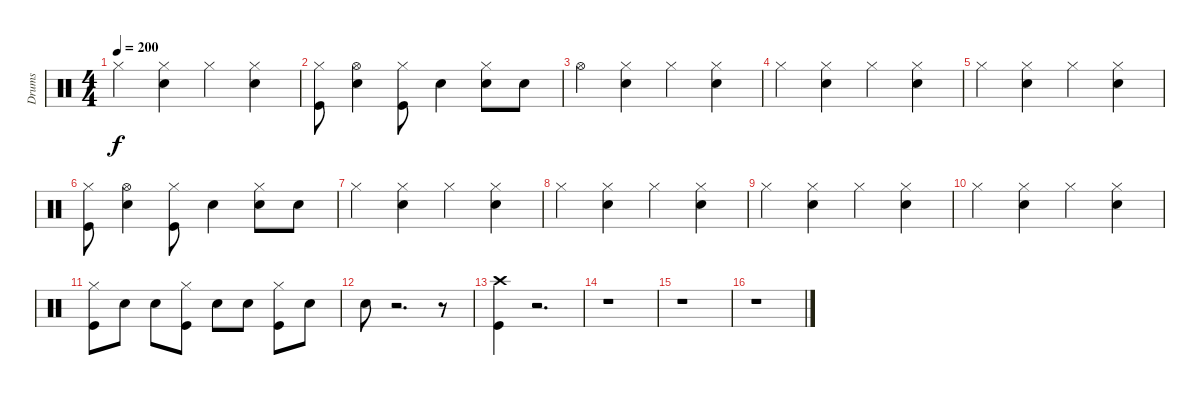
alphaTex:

\track ("Drums" "Drums") {instrument percussion}
\staff {score}
\articulation defaults
\ts (4 4)
\tempo 200
\clef neutral
\ks c "Hi-Hat (closed)".4{dy f}
("Snare (hit) 2" "Hi-Hat (closed)").4 "Hi-Hat (closed)".4 ("Snare (hit) 2" "Hi-Hat (closed)").4 |
("Kick (hit)" "Hi-Hat (closed)").8 ("Hi-Hat (open)" "Electric Snare (hit)").4 ("Kick (hit)" "Hi-Hat (closed)").8 "Electric Snare (hit)".4 ("Electric Snare (hit)" "Hi-Hat (closed)").8 "Electric Snare (hit)".8 |
"Hi-Hat (open)".4 ("Snare (hit) 2" "Hi-Hat (closed)").4 "Hi-Hat (closed)".4 ("Snare (hit) 2" "Hi-Hat (closed)").4 |
"Hi-Hat (closed)".4 ("Snare (hit) 2" "Hi-Hat (closed)").4 "Hi-Hat (closed)".4 ("Snare (hit) 2" "Hi-Hat (closed)").4 |
"Hi-Hat (closed)".4 ("Snare (hit) 2" "Hi-Hat (closed)").4 "Hi-Hat (closed)".4 ("Snare (hit) 2" "Hi-Hat (closed)").4 |
("Kick (hit)" "Hi-Hat (closed)").8 ("Hi-Hat (open)" "Electric Snare (hit)").4 ("Kick (hit)" "Hi-Hat (closed)").8 "Electric Snare (hit)".4 ("Electric Snare (hit)" "Hi-Hat (closed)").8 "Electric Snare (hit)".8 |
"Hi-Hat (closed)".4 ("Snare (hit) 2" "Hi-Hat (closed)").4 "Hi-Hat (closed)".4 ("Snare (hit) 2" "Hi-Hat (closed)").4 |
"Hi-Hat (closed)".4 ("Snare (hit) 2" "Hi-Hat (closed)").4 "Hi-Hat (closed)".4 ("Snare (hit) 2" "Hi-Hat (closed)").4 |
"Hi-Hat (closed)".4 ("Snare (hit) 2" "Hi-Hat (closed)").4 "Hi-Hat (closed)".4 ("Snare (hit) 2" "Hi-Hat (closed)").4 |
"Hi-Hat (closed)".4 ("Snare (hit) 2" "Hi-Hat (closed)").4 "Hi-Hat (closed)".4 ("Snare (hit) 2" "Hi-Hat (closed)").4 |
("Hi-Hat (closed)" "Kick (hit)").8 "Electric Snare (hit)".8 "Electric Snare (hit)".8 ("Hi-Hat (closed)" "Kick (hit)").8 "Electric Snare (hit)".8 "Electric Snare (hit)".8 ("Hi-Hat (closed)" "Kick (hit)").8 "Electric Snare (hit)".8 |
"Electric Snare (hit)".8 r.2{d} r.8 |
("Crash high (hit)" "Kick (hit)").4 r.2{d} |
r.1 |
r.1 |
r.1
